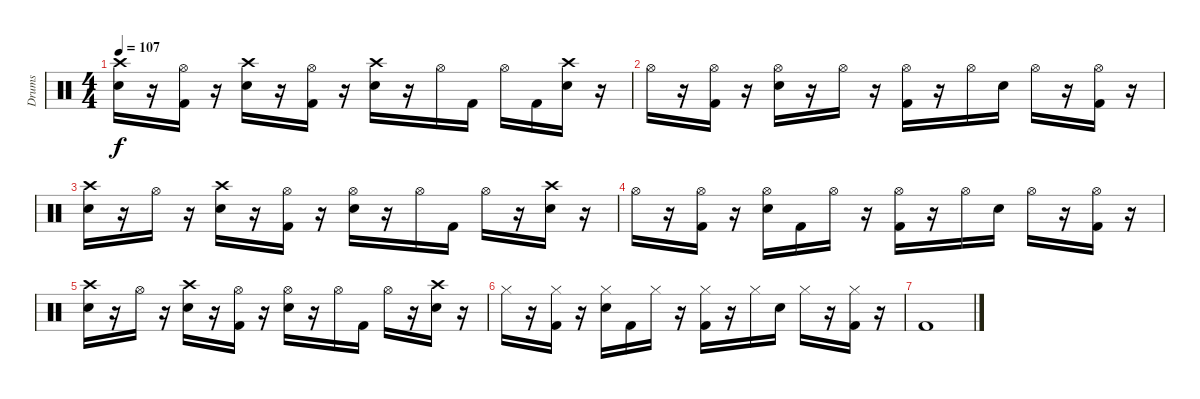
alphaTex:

\track ("Drums" "Drums") {instrument percussion}
\staff {score}
\articulation defaults
\ts (4 4)
\tempo 107
\clef neutral
\ks c
("Crash high (hit)" "Electric Snare (hit)").16{dy f} r.16 ("Hi-Hat (open)" "Kick (hit) 2").16 r.16 ("Crash high (hit)" "Electric Snare (hit)").16 r.16 ("Hi-Hat (open)" "Kick (hit) 2").16 r.16 ("Crash high (hit)" "Electric Snare (hit)").16 r.16 "Hi-Hat (open)".16 "Kick (hit) 2".16 "Hi-Hat (open)".16 "Kick (hit) 2".16 ("Crash high (hit)" "Electric Snare (hit)").16 r.16 |
"Hi-Hat (open)".16 r.16 ("Hi-Hat (open)" "Kick (hit) 2").16 r.16 ("Hi-Hat (open)" "Electric Snare (hit)").16 r.16 "Hi-Hat (open)".16 r.16 ("Hi-Hat (open)" "Kick (hit) 2").16 r.16 "Hi-Hat (open)".16 "Electric Snare (hit)".16 "Hi-Hat (open)".16 r.16 ("Hi-Hat (open)" "Kick (hit) 2").16 r.16 |
("Crash high (hit)" "Electric Snare (hit)").16 r.16 "Hi-Hat (open)".16 r.16 ("Crash high (hit)" "Electric Snare (hit)").16 r.16 ("Hi-Hat (open)" "Kick (hit) 2").16 r.16 ("Hi-Hat (open)" "Electric Snare (hit)").16 r.16 "Hi-Hat (open)".16 "Kick (hit) 2".16 "Hi-Hat (open)".16 r.16 ("Crash high (hit)" "Electric Snare (hit)").16 r.16 |
"Hi-Hat (open)".16 r.16 ("Hi-Hat (open)" "Kick (hit) 2").16 r.16 ("Hi-Hat (open)" "Electric Snare (hit)").16 "Kick (hit) 2".16 "Hi-Hat (open)".16 r.16 ("Hi-Hat (open)" "Kick (hit) 2").16 r.16 "Hi-Hat (open)".16 "Electric Snare (hit)".16 "Hi-Hat (open)".16 r.16 ("Hi-Hat (open)" "Kick (hit) 2").16 r.16 |
("Crash high (hit)" "Electric Snare (hit)").16 r.16 "Hi-Hat (open)".16 r.16 ("Crash high (hit)" "Electric Snare (hit)").16 r.16 ("Hi-Hat (open)" "Kick (hit) 2").16 r.16 ("Hi-Hat (open)" "Electric Snare (hit)").16 r.16 "Hi-Hat (open)".16 "Kick (hit) 2".16 "Hi-Hat (open)".16 r.16 ("Crash high (hit)" "Electric Snare (hit)").16 r.16 |
"Hi-Hat (closed)".16 r.16 ("Hi-Hat (closed)" "Kick (hit) 2").16 r.16 ("Hi-Hat (closed)" "Electric Snare (hit)").16 "Kick (hit) 2".16 "Hi-Hat (closed)".16 r.16 ("Hi-Hat (closed)" "Kick (hit) 2").16 r.16 "Hi-Hat (closed)".16 "Electric Snare (hit)".16 "Hi-Hat (closed)".16 r.16 ("Hi-Hat (closed)" "Kick (hit) 2").16 r.16 |
"Kick (hit) 2".1
